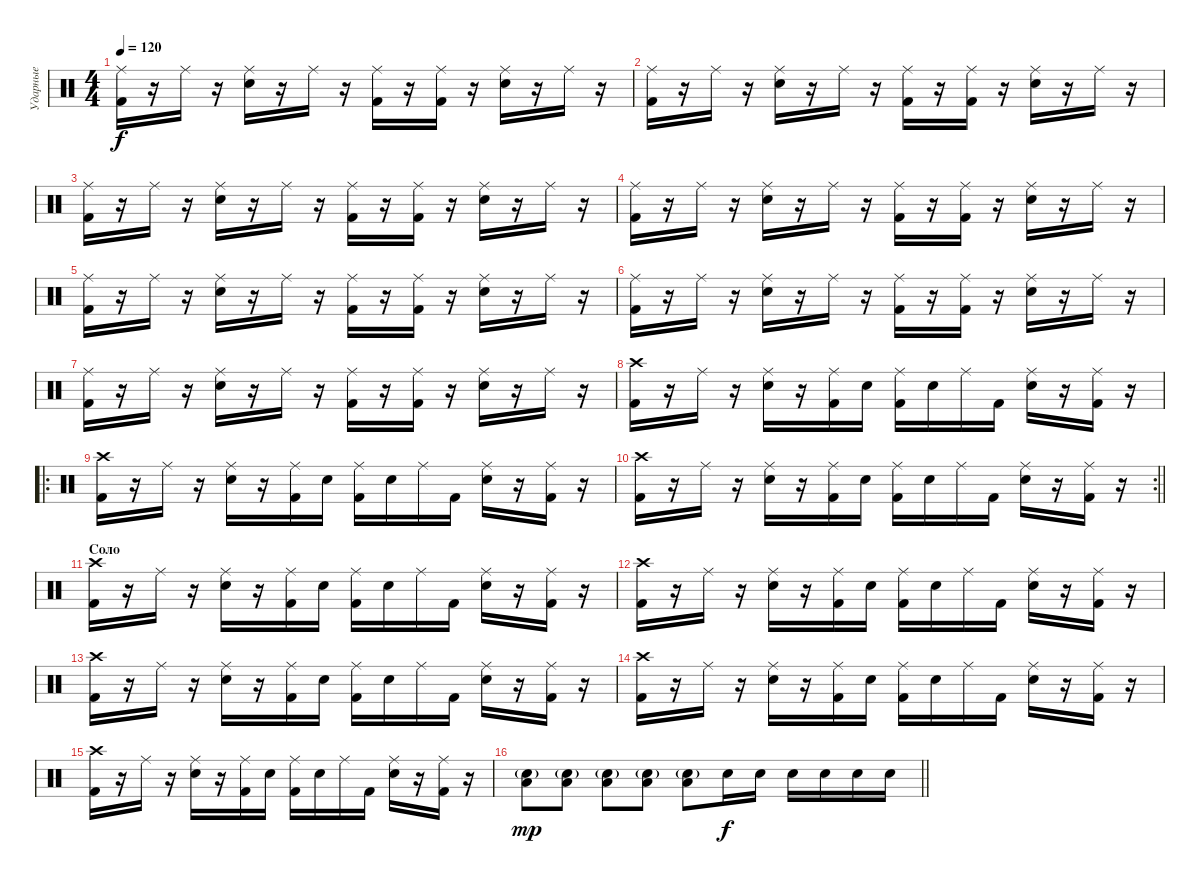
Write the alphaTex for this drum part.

\track ("Ударные" "Ударные") {instrument percussion}
\staff {score}
\articulation defaults
\ts (4 4)
\tempo 120
\clef neutral
\ks c
("Ride (middle)" "Kick (hit) 2").16{dy f} r.16 "Ride (middle)".16 r.16 ("Ride (middle)" "Electric Snare (hit)").16 r.16 "Ride (middle)".16 r.16 ("Ride (middle)" "Kick (hit) 2").16 r.16 ("Ride (middle)" "Kick (hit) 2").16 r.16 ("Ride (middle)" "Electric Snare (hit)").16 r.16 "Ride (middle)".16 r.16 |
("Ride (middle)" "Kick (hit) 2").16 r.16 "Ride (middle)".16 r.16 ("Ride (middle)" "Electric Snare (hit)").16 r.16 "Ride (middle)".16 r.16 ("Ride (middle)" "Kick (hit) 2").16 r.16 ("Ride (middle)" "Kick (hit) 2").16 r.16 ("Ride (middle)" "Electric Snare (hit)").16 r.16 "Ride (middle)".16 r.16 |
("Ride (middle)" "Kick (hit) 2").16 r.16 "Ride (middle)".16 r.16 ("Ride (middle)" "Electric Snare (hit)").16 r.16 "Ride (middle)".16 r.16 ("Ride (middle)" "Kick (hit) 2").16 r.16 ("Ride (middle)" "Kick (hit) 2").16 r.16 ("Ride (middle)" "Electric Snare (hit)").16 r.16 "Ride (middle)".16 r.16 |
("Ride (middle)" "Kick (hit) 2").16 r.16 "Ride (middle)".16 r.16 ("Ride (middle)" "Electric Snare (hit)").16 r.16 "Ride (middle)".16 r.16 ("Ride (middle)" "Kick (hit) 2").16 r.16 ("Ride (middle)" "Kick (hit) 2").16 r.16 ("Ride (middle)" "Electric Snare (hit)").16 r.16 "Ride (middle)".16 r.16 |
("Ride (middle)" "Kick (hit) 2").16 r.16 "Ride (middle)".16 r.16 ("Ride (middle)" "Electric Snare (hit)").16 r.16 "Ride (middle)".16 r.16 ("Ride (middle)" "Kick (hit) 2").16 r.16 ("Ride (middle)" "Kick (hit) 2").16 r.16 ("Ride (middle)" "Electric Snare (hit)").16 r.16 "Ride (middle)".16 r.16 |
("Ride (middle)" "Kick (hit) 2").16 r.16 "Ride (middle)".16 r.16 ("Ride (middle)" "Electric Snare (hit)").16 r.16 "Ride (middle)".16 r.16 ("Ride (middle)" "Kick (hit) 2").16 r.16 ("Ride (middle)" "Kick (hit) 2").16 r.16 ("Ride (middle)" "Electric Snare (hit)").16 r.16 "Ride (middle)".16 r.16 |
("Ride (middle)" "Kick (hit) 2").16 r.16 "Ride (middle)".16 r.16 ("Ride (middle)" "Electric Snare (hit)").16 r.16 "Ride (middle)".16 r.16 ("Ride (middle)" "Kick (hit) 2").16 r.16 ("Ride (middle)" "Kick (hit) 2").16 r.16 ("Ride (middle)" "Electric Snare (hit)").16 r.16 "Ride (middle)".16 r.16 |
("Crash high (hit)" "Kick (hit) 2").16 r.16 "Ride (middle)".16 r.16 ("Ride (middle)" "Electric Snare (hit)").16 r.16 ("Ride (middle)" "Kick (hit) 2").16 "Electric Snare (hit)".16 ("Ride (middle)" "Kick (hit) 2").16 "Electric Snare (hit)".16 "Ride (middle)".16 "Kick (hit) 2".16 ("Ride (middle)" "Electric Snare (hit)").16 r.16 ("Ride (middle)" "Kick (hit) 2").16 r.16 |
\ro
("Crash high (hit)" "Kick (hit) 2").16 r.16 "Ride (middle)".16 r.16 ("Ride (middle)" "Electric Snare (hit)").16 r.16 ("Ride (middle)" "Kick (hit) 2").16 "Electric Snare (hit)".16 ("Ride (middle)" "Kick (hit) 2").16 "Electric Snare (hit)".16 "Ride (middle)".16 "Kick (hit) 2".16 ("Ride (middle)" "Electric Snare (hit)").16 r.16 ("Ride (middle)" "Kick (hit) 2").16 r.16 |
\rc 2
\barLineRight lightlight
("Crash high (hit)" "Kick (hit) 2").16 r.16 "Ride (middle)".16 r.16 ("Ride (middle)" "Electric Snare (hit)").16 r.16 ("Ride (middle)" "Kick (hit) 2").16 "Electric Snare (hit)".16 ("Ride (middle)" "Kick (hit) 2").16 "Electric Snare (hit)".16 "Ride (middle)".16 "Kick (hit) 2".16 ("Ride (middle)" "Electric Snare (hit)").16 r.16 ("Ride (middle)" "Kick (hit) 2").16 r.16 |
\section ("" "Соло")
("Crash high (hit)" "Kick (hit) 2").16 r.16 "Ride (middle)".16 r.16 ("Ride (middle)" "Electric Snare (hit)").16 r.16 ("Ride (middle)" "Kick (hit) 2").16 "Electric Snare (hit)".16 ("Ride (middle)" "Kick (hit) 2").16 "Electric Snare (hit)".16 "Ride (middle)".16 "Kick (hit) 2".16 ("Ride (middle)" "Electric Snare (hit)").16 r.16 ("Ride (middle)" "Kick (hit) 2").16 r.16 |
("Crash high (hit)" "Kick (hit) 2").16 r.16 "Ride (middle)".16 r.16 ("Ride (middle)" "Electric Snare (hit)").16 r.16 ("Ride (middle)" "Kick (hit) 2").16 "Electric Snare (hit)".16 ("Ride (middle)" "Kick (hit) 2").16 "Electric Snare (hit)".16 "Ride (middle)".16 "Kick (hit) 2".16 ("Ride (middle)" "Electric Snare (hit)").16 r.16 ("Ride (middle)" "Kick (hit) 2").16 r.16 |
("Crash high (hit)" "Kick (hit) 2").16 r.16 "Ride (middle)".16 r.16 ("Ride (middle)" "Electric Snare (hit)").16 r.16 ("Ride (middle)" "Kick (hit) 2").16 "Electric Snare (hit)".16 ("Ride (middle)" "Kick (hit) 2").16 "Electric Snare (hit)".16 "Ride (middle)".16 "Kick (hit) 2".16 ("Ride (middle)" "Electric Snare (hit)").16 r.16 ("Ride (middle)" "Kick (hit) 2").16 r.16 |
("Crash high (hit)" "Kick (hit) 2").16 r.16 "Ride (middle)".16 r.16 ("Ride (middle)" "Electric Snare (hit)").16 r.16 ("Ride (middle)" "Kick (hit) 2").16 "Electric Snare (hit)".16 ("Ride (middle)" "Kick (hit) 2").16 "Electric Snare (hit)".16 "Ride (middle)".16 "Kick (hit) 2".16 ("Ride (middle)" "Electric Snare (hit)").16 r.16 ("Ride (middle)" "Kick (hit) 2").16 r.16 |
("Crash high (hit)" "Kick (hit) 2").16 r.16 "Ride (middle)".16 r.16 ("Ride (middle)" "Electric Snare (hit)").16 r.16 ("Ride (middle)" "Kick (hit) 2").16 "Electric Snare (hit)".16 ("Ride (middle)" "Kick (hit) 2").16 "Electric Snare (hit)".16 "Ride (middle)".16 "Kick (hit) 2".16 ("Ride (middle)" "Electric Snare (hit)").16 r.16 ("Ride (middle)" "Kick (hit) 2").16 r.16 |
\barLineRight lightlight
("Low Floor Tom (hit)" "Electric Snare (hit)"{g}).8{dy mp} ("Low Floor Tom (hit)" "Electric Snare (hit)"{g}).8 ("Low Floor Tom (hit)" "Electric Snare (hit)"{g}).8 ("Low Floor Tom (hit)" "Electric Snare (hit)"{g}).8 ("Low Floor Tom (hit)" "Electric Snare (hit)"{g}).8 "Electric Snare (hit)".16{dy f} "Electric Snare (hit)".16 "Electric Snare (hit)".16 "Electric Snare (hit)".16 "Electric Snare (hit)".16 "Electric Snare (hit)".16
